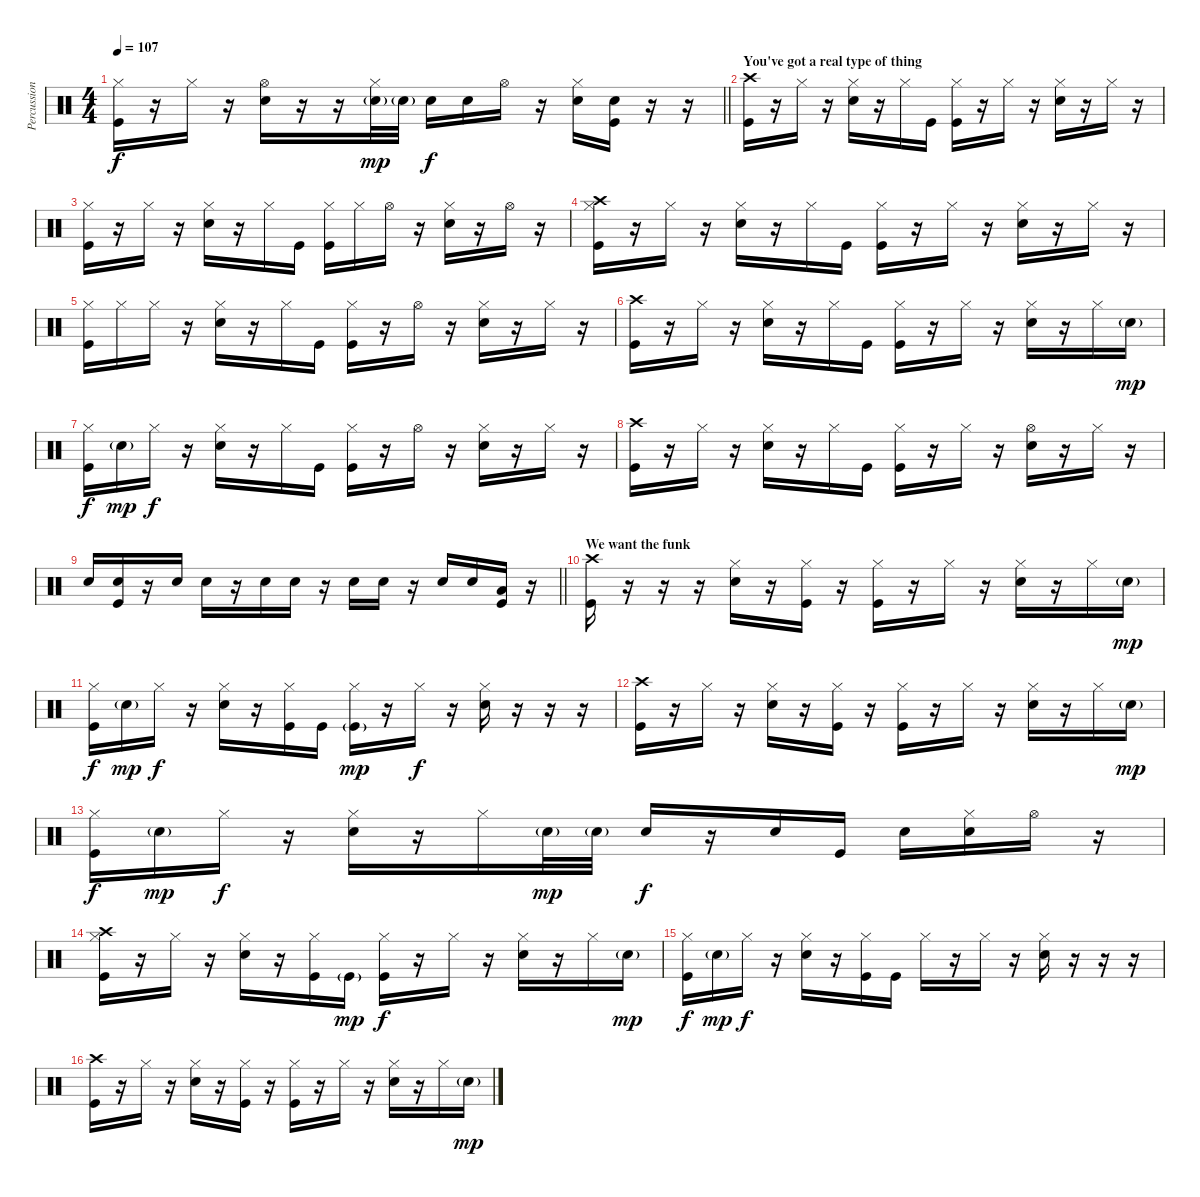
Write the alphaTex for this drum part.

\track ("Percussion" "Percussion") {instrument percussion}
\staff {score}
\articulation defaults
\ts (4 4)
\tempo 107
\clef neutral
\barLineRight lightlight
\ks c
("Hi-Hat (closed)" "Kick (hit)").16{dy f} r.16 "Hi-Hat (closed)".16 r.16 ("Hi-Hat (open)" "Snare (hit) 2").16 r.16 r.16 ("Hi-Hat (closed)" "Snare (hit) 2"{g}).32{dy mp} "Snare (hit) 2"{g}.32 "Snare (hit) 2".16{dy f} "Snare (hit) 2".16 "Hi-Hat (open)".16 r.16 ("Hi-Hat (closed)" "Snare (hit) 2").16 ("Snare (hit) 2" "Kick (hit)").16 r.16 r.16 |
\section ("" "You've got a real type of thing")
("Crash high (hit)" "Kick (hit)").16 r.16 "Hi-Hat (closed)".16 r.16 ("Hi-Hat (closed)" "Snare (hit) 2").16 r.16 "Hi-Hat (closed)".16 "Kick (hit)".16 ("Hi-Hat (closed)" "Kick (hit)").16 r.16 "Hi-Hat (closed)".16 r.16 ("Hi-Hat (closed)" "Snare (hit) 2").16 r.16 "Hi-Hat (closed)".16 r.16 |
("Hi-Hat (closed)" "Kick (hit)").16 r.16 "Hi-Hat (closed)".16 r.16 ("Hi-Hat (closed)" "Snare (hit) 2").16 r.16 "Hi-Hat (closed)".16 "Kick (hit)".16 ("Hi-Hat (closed)" "Kick (hit)").16 "Hi-Hat (closed)".16 "Hi-Hat (open)".16 r.16 ("Hi-Hat (closed)" "Snare (hit) 2").16 r.16 "Hi-Hat (open)".16 r.16 |
("Crash high (hit)" "Hi-Hat (closed)" "Kick (hit)").16 r.16 "Hi-Hat (closed)".16 r.16 ("Hi-Hat (closed)" "Snare (hit) 2").16 r.16 "Hi-Hat (closed)".16 "Kick (hit)".16 ("Hi-Hat (closed)" "Kick (hit)").16 r.16 "Hi-Hat (closed)".16 r.16 ("Hi-Hat (closed)" "Snare (hit) 2").16 r.16 "Hi-Hat (closed)".16 r.16 |
("Hi-Hat (closed)" "Kick (hit)").16 "Hi-Hat (closed)".16 "Hi-Hat (closed)".16 r.16 ("Hi-Hat (closed)" "Snare (hit) 2").16 r.16 "Hi-Hat (closed)".16 "Kick (hit)".16 ("Hi-Hat (closed)" "Kick (hit)").16 r.16 "Hi-Hat (open)".16 r.16 ("Hi-Hat (closed)" "Snare (hit) 2").16 r.16 "Hi-Hat (closed)".16 r.16 |
("Crash high (hit)" "Kick (hit)").16 r.16 "Hi-Hat (closed)".16 r.16 ("Hi-Hat (closed)" "Snare (hit) 2").16 r.16 "Hi-Hat (closed)".16 "Kick (hit)".16 ("Hi-Hat (closed)" "Kick (hit)").16 r.16 "Hi-Hat (closed)".16 r.16 ("Hi-Hat (closed)" "Snare (hit) 2").16 r.16 "Hi-Hat (closed)".16 "Snare (hit) 2"{g}.16{dy mp} |
("Hi-Hat (closed)" "Kick (hit)").16{dy f} "Snare (hit) 2"{g}.16{dy mp} "Hi-Hat (closed)".16{dy f} r.16 ("Hi-Hat (closed)" "Snare (hit) 2").16 r.16 "Hi-Hat (closed)".16 "Kick (hit)".16 ("Hi-Hat (closed)" "Kick (hit)").16 r.16 "Hi-Hat (open)".16 r.16 ("Hi-Hat (closed)" "Snare (hit) 2").16 r.16 "Hi-Hat (closed)".16 r.16 |
("Crash high (hit)" "Kick (hit)").16 r.16 "Hi-Hat (closed)".16 r.16 ("Hi-Hat (closed)" "Snare (hit) 2").16 r.16 "Hi-Hat (closed)".16 "Kick (hit)".16 ("Hi-Hat (closed)" "Kick (hit)").16 r.16 "Hi-Hat (closed)".16 r.16 ("Hi-Hat (open)" "Snare (hit) 2").16 r.16 "Hi-Hat (closed)".16 r.16 |
\barLineRight lightlight "Snare (hit) 2".16
("Snare (hit) 2" "Kick (hit)").16 r.16 "Snare (hit) 2".16 "Snare (hit) 2".16 r.16 "Snare (hit) 2".16 "Snare (hit) 2".16 r.16 "Snare (hit) 2".16 "Snare (hit) 2".16 r.16 "Snare (hit) 2".16 "Snare (hit) 2".16 ("Low Tom (hit)" "Kick (hit)").16 r.16 |
\section ("" "We want the funk")
("Crash high (hit)" "Kick (hit)").16 r.16 r.16 r.16 ("Hi-Hat (closed)" "Snare (hit) 2").16 r.16 ("Hi-Hat (closed)" "Kick (hit)").16 r.16 ("Hi-Hat (closed)" "Kick (hit)").16 r.16 "Hi-Hat (closed)".16 r.16 ("Hi-Hat (closed)" "Snare (hit) 2").16 r.16 "Hi-Hat (closed)".16 "Snare (hit) 2"{g}.16{dy mp} |
("Hi-Hat (closed)" "Kick (hit)").16{dy f} "Snare (hit) 2"{g}.16{dy mp} "Hi-Hat (closed)".16{dy f} r.16 ("Hi-Hat (closed)" "Snare (hit) 2").16 r.16 ("Hi-Hat (closed)" "Kick (hit)").16 "Kick (hit)".16 ("Hi-Hat (closed)" "Kick (hit)"{g}).16{dy mp} r.16 "Hi-Hat (closed)".16{dy f} r.16 ("Hi-Hat (closed)" "Snare (hit) 2").16 r.16 r.16 r.16 |
("Crash high (hit)" "Kick (hit)").16 r.16 "Hi-Hat (closed)".16 r.16 ("Hi-Hat (closed)" "Snare (hit) 2").16 r.16 ("Hi-Hat (closed)" "Kick (hit)").16 r.16 ("Hi-Hat (closed)" "Kick (hit)").16 r.16 "Hi-Hat (closed)".16 r.16 ("Hi-Hat (closed)" "Snare (hit) 2").16 r.16 "Hi-Hat (closed)".16 "Snare (hit) 2"{g}.16{dy mp} |
("Hi-Hat (closed)" "Kick (hit)").16{dy f} "Snare (hit) 2"{g}.16{dy mp} "Hi-Hat (closed)".16{dy f} r.16 ("Hi-Hat (closed)" "Snare (hit) 2").16 r.16 "Hi-Hat (closed)".16 "Snare (hit) 2"{g}.32{dy mp} "Snare (hit) 2"{g}.32 "Snare (hit) 2".16{dy f} r.16 "Snare (hit) 2".16 "Kick (hit)".16 "Snare (hit) 2".16 ("Hi-Hat (closed)" "Snare (hit) 2").16 "Hi-Hat (open)".16 r.16 |
("Crash high (hit)" "Hi-Hat (closed)" "Kick (hit)").16 r.16 "Hi-Hat (closed)".16 r.16 ("Hi-Hat (closed)" "Snare (hit) 2").16 r.16 ("Hi-Hat (closed)" "Kick (hit)").16 "Kick (hit)"{g}.16{dy mp} ("Hi-Hat (closed)" "Kick (hit)").16{dy f} r.16 "Hi-Hat (closed)".16 r.16 ("Hi-Hat (closed)" "Snare (hit) 2").16 r.16 "Hi-Hat (closed)".16 "Snare (hit) 2"{g}.16{dy mp} |
("Hi-Hat (closed)" "Kick (hit)").16{dy f} "Snare (hit) 2"{g}.16{dy mp} "Hi-Hat (closed)".16{dy f} r.16 ("Hi-Hat (closed)" "Snare (hit) 2").16 r.16 ("Hi-Hat (closed)" "Kick (hit)").16 "Kick (hit)".16 "Hi-Hat (closed)".16 r.16 "Hi-Hat (closed)".16 r.16 ("Hi-Hat (closed)" "Snare (hit) 2").16 r.16 r.16 r.16 |
("Crash high (hit)" "Kick (hit)").16 r.16 "Hi-Hat (closed)".16 r.16 ("Hi-Hat (closed)" "Snare (hit) 2").16 r.16 ("Hi-Hat (closed)" "Kick (hit)").16 r.16 ("Hi-Hat (closed)" "Kick (hit)").16 r.16 "Hi-Hat (closed)".16 r.16 ("Hi-Hat (closed)" "Snare (hit) 2").16 r.16 "Hi-Hat (closed)".16 "Snare (hit) 2"{g}.16{dy mp}
